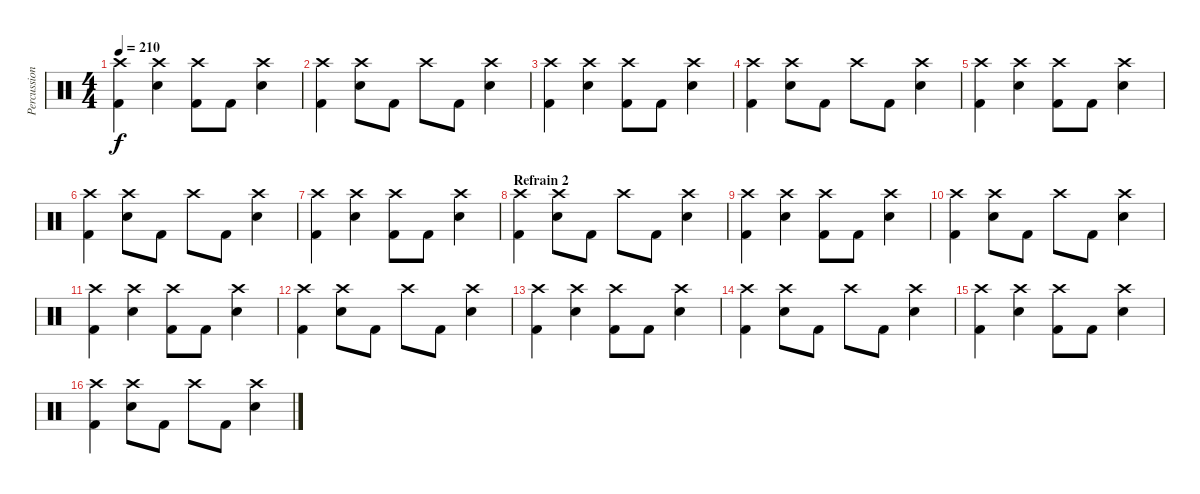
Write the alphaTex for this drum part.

\track ("Percussion" "Percussion") {instrument percussion}
\staff {score}
\articulation defaults
\ts (4 4)
\tempo 210
\clef neutral
\ks c
("Kick (hit) 2" "Crash high (hit)").4{dy f} ("Electric Snare (hit)" "Crash high (hit)").4 ("Kick (hit) 2" "Crash high (hit)").8 "Kick (hit) 2".8 ("Electric Snare (hit)" "Crash high (hit)").4 |
("Kick (hit) 2" "Crash high (hit)").4 ("Electric Snare (hit)" "Crash high (hit)").8 "Kick (hit) 2".8 "Crash high (hit)".8 "Kick (hit) 2".8 ("Electric Snare (hit)" "Crash high (hit)").4 |
("Kick (hit) 2" "Crash high (hit)").4 ("Electric Snare (hit)" "Crash high (hit)").4 ("Kick (hit) 2" "Crash high (hit)").8 "Kick (hit) 2".8 ("Electric Snare (hit)" "Crash high (hit)").4 |
("Kick (hit) 2" "Crash high (hit)").4 ("Electric Snare (hit)" "Crash high (hit)").8 "Kick (hit) 2".8 "Crash high (hit)".8 "Kick (hit) 2".8 ("Electric Snare (hit)" "Crash high (hit)").4 |
("Kick (hit) 2" "Crash high (hit)").4 ("Electric Snare (hit)" "Crash high (hit)").4 ("Kick (hit) 2" "Crash high (hit)").8 "Kick (hit) 2".8 ("Electric Snare (hit)" "Crash high (hit)").4 |
("Kick (hit) 2" "Crash high (hit)").4 ("Electric Snare (hit)" "Crash high (hit)").8 "Kick (hit) 2".8 "Crash high (hit)".8 "Kick (hit) 2".8 ("Electric Snare (hit)" "Crash high (hit)").4 |
("Kick (hit) 2" "Crash high (hit)").4 ("Electric Snare (hit)" "Crash high (hit)").4 ("Kick (hit) 2" "Crash high (hit)").8 "Kick (hit) 2".8 ("Electric Snare (hit)" "Crash high (hit)").4 |
\section ("" "Refrain 2")
("Kick (hit) 2" "Crash high (hit)").4 ("Electric Snare (hit)" "Crash high (hit)").8 "Kick (hit) 2".8 "Crash high (hit)".8 "Kick (hit) 2".8 ("Electric Snare (hit)" "Crash high (hit)").4 |
("Kick (hit) 2" "Crash high (hit)").4 ("Electric Snare (hit)" "Crash high (hit)").4 ("Kick (hit) 2" "Crash high (hit)").8 "Kick (hit) 2".8 ("Electric Snare (hit)" "Crash high (hit)").4 |
("Kick (hit) 2" "Crash high (hit)").4 ("Electric Snare (hit)" "Crash high (hit)").8 "Kick (hit) 2".8 "Crash high (hit)".8 "Kick (hit) 2".8 ("Electric Snare (hit)" "Crash high (hit)").4 |
("Kick (hit) 2" "Crash high (hit)").4 ("Electric Snare (hit)" "Crash high (hit)").4 ("Kick (hit) 2" "Crash high (hit)").8 "Kick (hit) 2".8 ("Electric Snare (hit)" "Crash high (hit)").4 |
("Kick (hit) 2" "Crash high (hit)").4 ("Electric Snare (hit)" "Crash high (hit)").8 "Kick (hit) 2".8 "Crash high (hit)".8 "Kick (hit) 2".8 ("Electric Snare (hit)" "Crash high (hit)").4 |
("Kick (hit) 2" "Crash high (hit)").4 ("Electric Snare (hit)" "Crash high (hit)").4 ("Kick (hit) 2" "Crash high (hit)").8 "Kick (hit) 2".8 ("Electric Snare (hit)" "Crash high (hit)").4 |
("Kick (hit) 2" "Crash high (hit)").4 ("Electric Snare (hit)" "Crash high (hit)").8 "Kick (hit) 2".8 "Crash high (hit)".8 "Kick (hit) 2".8 ("Electric Snare (hit)" "Crash high (hit)").4 |
("Kick (hit) 2" "Crash high (hit)").4 ("Electric Snare (hit)" "Crash high (hit)").4 ("Kick (hit) 2" "Crash high (hit)").8 "Kick (hit) 2".8 ("Electric Snare (hit)" "Crash high (hit)").4 |
("Kick (hit) 2" "Crash high (hit)").4 ("Electric Snare (hit)" "Crash high (hit)").8 "Kick (hit) 2".8 "Crash high (hit)".8 "Kick (hit) 2".8 ("Electric Snare (hit)" "Crash high (hit)").4
